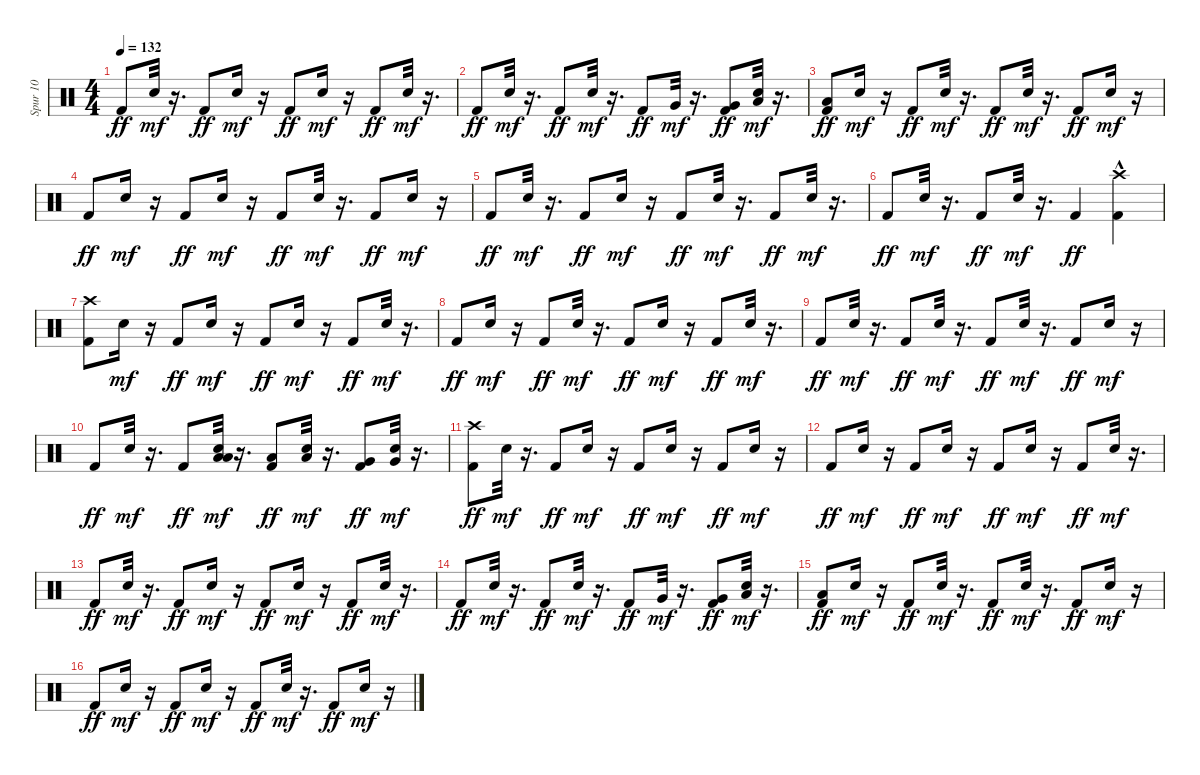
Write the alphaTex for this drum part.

\track ("Spur 10" "Spur 10") {instrument percussion}
\staff {score}
\articulation defaults
\ts (4 4)
\tempo 132
\clef neutral
\ks c "Kick (hit) 2".8{dy ff} "Snare (hit) 2".32{dy mf}
r.16{d} "Kick (hit) 2".8{dy ff} "Snare (hit) 2".16{dy mf} r.16 "Kick (hit) 2".8{dy ff} "Snare (hit) 2".16{dy mf} r.16 "Kick (hit) 2".8{dy ff} "Snare (hit) 2".32{dy mf} r.16{d} |
"Kick (hit) 2".8{dy ff} "Snare (hit) 2".32{dy mf} r.16{d} "Kick (hit) 2".8{dy ff} "Snare (hit) 2".32{dy mf} r.16{d} "Kick (hit) 2".8{dy ff} "Very Low Tom (hit)".32{dy mf} r.16{d} ("Very Low Tom (hit)" "Kick (hit) 2").8{dy ff} ("Snare (hit) 2" "Low Floor Tom (hit)").32{dy mf} r.16{d} |
("Low Floor Tom (hit)" "Kick (hit) 2").8{dy ff} "Snare (hit) 2".16{dy mf} r.16 "Kick (hit) 2".8{dy ff} "Snare (hit) 2".32{dy mf} r.16{d} "Kick (hit) 2".8{dy ff} "Snare (hit) 2".32{dy mf} r.16{d} "Kick (hit) 2".8{dy ff} "Snare (hit) 2".16{dy mf} r.16 |
"Kick (hit) 2".8{dy ff} "Snare (hit) 2".16{dy mf} r.16 "Kick (hit) 2".8{dy ff} "Snare (hit) 2".16{dy mf} r.16 "Kick (hit) 2".8{dy ff} "Snare (hit) 2".32{dy mf} r.16{d} "Kick (hit) 2".8{dy ff} "Snare (hit) 2".16{dy mf} r.16 |
"Kick (hit) 2".8{dy ff} "Snare (hit) 2".32{dy mf} r.16{d} "Kick (hit) 2".8{dy ff} "Snare (hit) 2".16{dy mf} r.16 "Kick (hit) 2".8{dy ff} "Snare (hit) 2".32{dy mf} r.16{d} "Kick (hit) 2".8{dy ff} "Snare (hit) 2".32{dy mf} r.16{d} |
"Kick (hit) 2".8{dy ff} "Snare (hit) 2".32{dy mf} r.16{d} "Kick (hit) 2".8{dy ff} "Snare (hit) 2".32{dy mf} r.16{d} "Kick (hit) 2".4{dy ff} ("Crash high (hit)"{hac} "Kick (hit) 2").4 |
("Crash high (hit)" "Kick (hit) 2").8 "Snare (hit) 2".16{dy mf} r.16 "Kick (hit) 2".8{dy ff} "Snare (hit) 2".16{dy mf} r.16 "Kick (hit) 2".8{dy ff} "Snare (hit) 2".16{dy mf} r.16 "Kick (hit) 2".8{dy ff} "Snare (hit) 2".32{dy mf} r.16{d} |
"Kick (hit) 2".8{dy ff} "Snare (hit) 2".16{dy mf} r.16 "Kick (hit) 2".8{dy ff} "Snare (hit) 2".32{dy mf} r.16{d} "Kick (hit) 2".8{dy ff} "Snare (hit) 2".16{dy mf} r.16 "Kick (hit) 2".8{dy ff} "Snare (hit) 2".32{dy mf} r.16{d} |
"Kick (hit) 2".8{dy ff} "Snare (hit) 2".32{dy mf} r.16{d} "Kick (hit) 2".8{dy ff} "Snare (hit) 2".32{dy mf} r.16{d} "Kick (hit) 2".8{dy ff} "Snare (hit) 2".32{dy mf} r.16{d} "Kick (hit) 2".8{dy ff} "Snare (hit) 2".16{dy mf} r.16 |
"Kick (hit) 2".8{dy ff} "Snare (hit) 2".32{dy mf} r.16{d} "Kick (hit) 2".8{dy ff} ("Snare (hit) 2" "Low Tom (hit)" "Low Tom (hit)").32{dy mf} r.16{d} ("Low Tom (hit)" "Kick (hit) 2").8{dy ff} ("Snare (hit) 2" "Low Tom (hit)").32{dy mf} r.16{d} ("Very Low Tom (hit)" "Kick (hit) 2").8{dy ff} ("Snare (hit) 2" "Very Low Tom (hit)").32{dy mf} r.16{d} |
("Crash high (hit)" "Kick (hit) 2").8{dy ff} "Snare (hit) 2".32{dy mf} r.16{d} "Kick (hit) 2".8{dy ff} "Snare (hit) 2".16{dy mf} r.16 "Kick (hit) 2".8{dy ff} "Snare (hit) 2".16{dy mf} r.16 "Kick (hit) 2".8{dy ff} "Snare (hit) 2".16{dy mf} r.16 |
"Kick (hit) 2".8{dy ff} "Snare (hit) 2".16{dy mf} r.16 "Kick (hit) 2".8{dy ff} "Snare (hit) 2".16{dy mf} r.16 "Kick (hit) 2".8{dy ff} "Snare (hit) 2".16{dy mf} r.16 "Kick (hit) 2".8{dy ff} "Snare (hit) 2".32{dy mf} r.16{d} |
"Kick (hit) 2".8{dy ff} "Snare (hit) 2".32{dy mf} r.16{d} "Kick (hit) 2".8{dy ff} "Snare (hit) 2".16{dy mf} r.16 "Kick (hit) 2".8{dy ff} "Snare (hit) 2".16{dy mf} r.16 "Kick (hit) 2".8{dy ff} "Snare (hit) 2".32{dy mf} r.16{d} |
"Kick (hit) 2".8{dy ff} "Snare (hit) 2".32{dy mf} r.16{d} "Kick (hit) 2".8{dy ff} "Snare (hit) 2".32{dy mf} r.16{d} "Kick (hit) 2".8{dy ff} "Very Low Tom (hit)".32{dy mf} r.16{d} ("Very Low Tom (hit)" "Kick (hit) 2").8{dy ff} ("Snare (hit) 2" "Low Floor Tom (hit)").32{dy mf} r.16{d} |
("Low Floor Tom (hit)" "Kick (hit) 2").8{dy ff} "Snare (hit) 2".16{dy mf} r.16 "Kick (hit) 2".8{dy ff} "Snare (hit) 2".32{dy mf} r.16{d} "Kick (hit) 2".8{dy ff} "Snare (hit) 2".32{dy mf} r.16{d} "Kick (hit) 2".8{dy ff} "Snare (hit) 2".16{dy mf} r.16 |
"Kick (hit) 2".8{dy ff} "Snare (hit) 2".16{dy mf} r.16 "Kick (hit) 2".8{dy ff} "Snare (hit) 2".16{dy mf} r.16 "Kick (hit) 2".8{dy ff} "Snare (hit) 2".32{dy mf} r.16{d} "Kick (hit) 2".8{dy ff} "Snare (hit) 2".16{dy mf} r.16
